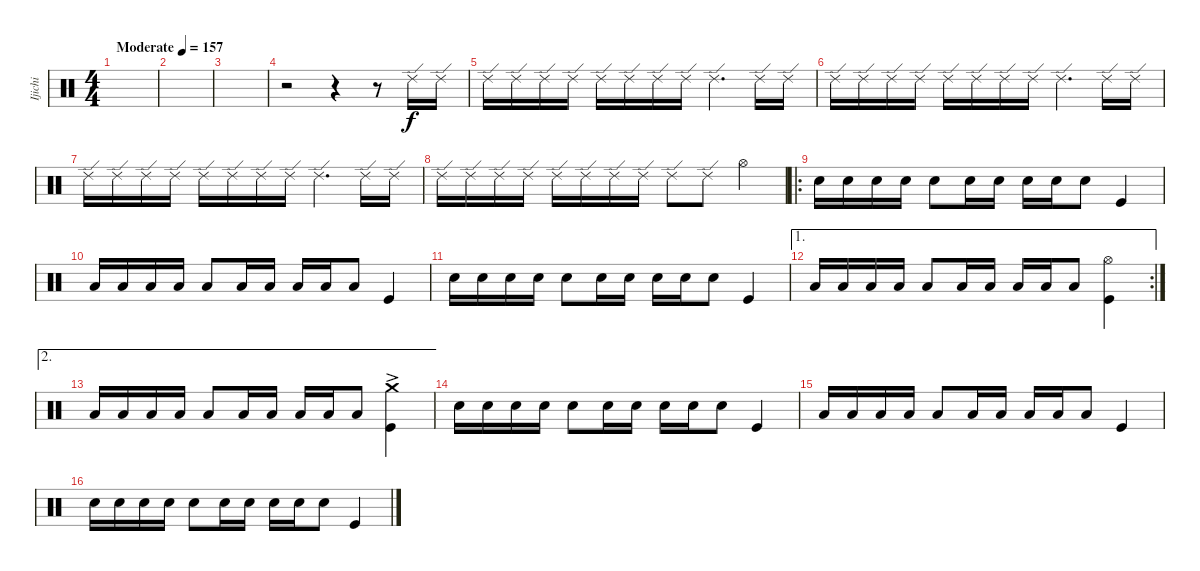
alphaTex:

\track ("Ijichi" "Ijichi") {instrument percussion}
\staff {score}
\articulation defaults
\ts (4 4)
\tempo (157 "Moderate")
\clef neutral
\ks c
|
|
|
r.2 r.4 r.8 "Ride (edge) 2".16 "Ride (edge) 2".16 |
"Ride (edge) 2".16 "Ride (edge) 2".16 "Ride (edge) 2".16 "Ride (edge) 2".16 "Ride (edge) 2".16 "Ride (edge) 2".16 "Ride (edge) 2".16 "Ride (edge) 2".16 "Ride (edge) 2".4{d} "Ride (edge) 2".16 "Ride (edge) 2".16 |
"Ride (edge) 2".16 "Ride (edge) 2".16 "Ride (edge) 2".16 "Ride (edge) 2".16 "Ride (edge) 2".16 "Ride (edge) 2".16 "Ride (edge) 2".16 "Ride (edge) 2".16 "Ride (edge) 2".4{d} "Ride (edge) 2".16 "Ride (edge) 2".16 |
"Ride (edge) 2".16 "Ride (edge) 2".16 "Ride (edge) 2".16 "Ride (edge) 2".16 "Ride (edge) 2".16 "Ride (edge) 2".16 "Ride (edge) 2".16 "Ride (edge) 2".16 "Ride (edge) 2".4{d} "Ride (edge) 2".16 "Ride (edge) 2".16 |
"Ride (edge) 2".16 "Ride (edge) 2".16 "Ride (edge) 2".16 "Ride (edge) 2".16 "Ride (edge) 2".16 "Ride (edge) 2".16 "Ride (edge) 2".16 "Ride (edge) 2".16 "Ride (edge) 2".8 "Ride (edge) 2".8 "Hi-Hat (open)".4 |
\ro "Snare (hit) 2".16 "Snare (hit) 2".16 "Snare (hit) 2".16 "Snare (hit) 2".16 "Snare (hit) 2".8 "Snare (hit) 2".16 "Snare (hit) 2".16 "Snare (hit) 2".16 "Snare (hit) 2".16 "Snare (hit) 2".8 "Kick (hit)".4
|
"Low Tom (hit)".16 "Low Tom (hit)".16 "Low Tom (hit)".16 "Low Tom (hit)".16 "Low Tom (hit)".8 "Low Tom (hit)".16 "Low Tom (hit)".16 "Low Tom (hit)".16 "Low Tom (hit)".16 "Low Tom (hit)".8 "Kick (hit)".4 |
"Snare (hit) 2".16 "Snare (hit) 2".16 "Snare (hit) 2".16 "Snare (hit) 2".16 "Snare (hit) 2".8 "Snare (hit) 2".16 "Snare (hit) 2".16 "Snare (hit) 2".16 "Snare (hit) 2".16 "Snare (hit) 2".8 "Kick (hit)".4 |
\ae 1
\rc 2 "Low Tom (hit)".16 "Low Tom (hit)".16 "Low Tom (hit)".16 "Low Tom (hit)".16 "Low Tom (hit)".8 "Low Tom (hit)".16 "Low Tom (hit)".16 "Low Tom (hit)".16 "Low Tom (hit)".16 "Low Tom (hit)".8
("Hi-Hat (open)" "Kick (hit)").4 |
\ae 2 "Low Tom (hit)".16 "Low Tom (hit)".16 "Low Tom (hit)".16 "Low Tom (hit)".16 "Low Tom (hit)".8 "Low Tom (hit)".16 "Low Tom (hit)".16 "Low Tom (hit)".16 "Low Tom (hit)".16 "Low Tom (hit)".8
("Crash medium (hit)"{ac} "Kick (hit)").4 |
"Snare (hit) 2".16 "Snare (hit) 2".16 "Snare (hit) 2".16 "Snare (hit) 2".16 "Snare (hit) 2".8 "Snare (hit) 2".16 "Snare (hit) 2".16 "Snare (hit) 2".16 "Snare (hit) 2".16 "Snare (hit) 2".8 "Kick (hit)".4 |
"Low Tom (hit)".16 "Low Tom (hit)".16 "Low Tom (hit)".16 "Low Tom (hit)".16 "Low Tom (hit)".8 "Low Tom (hit)".16 "Low Tom (hit)".16 "Low Tom (hit)".16 "Low Tom (hit)".16 "Low Tom (hit)".8 "Kick (hit)".4 |
"Snare (hit) 2".16 "Snare (hit) 2".16 "Snare (hit) 2".16 "Snare (hit) 2".16 "Snare (hit) 2".8 "Snare (hit) 2".16 "Snare (hit) 2".16 "Snare (hit) 2".16 "Snare (hit) 2".16 "Snare (hit) 2".8 "Kick (hit)".4
